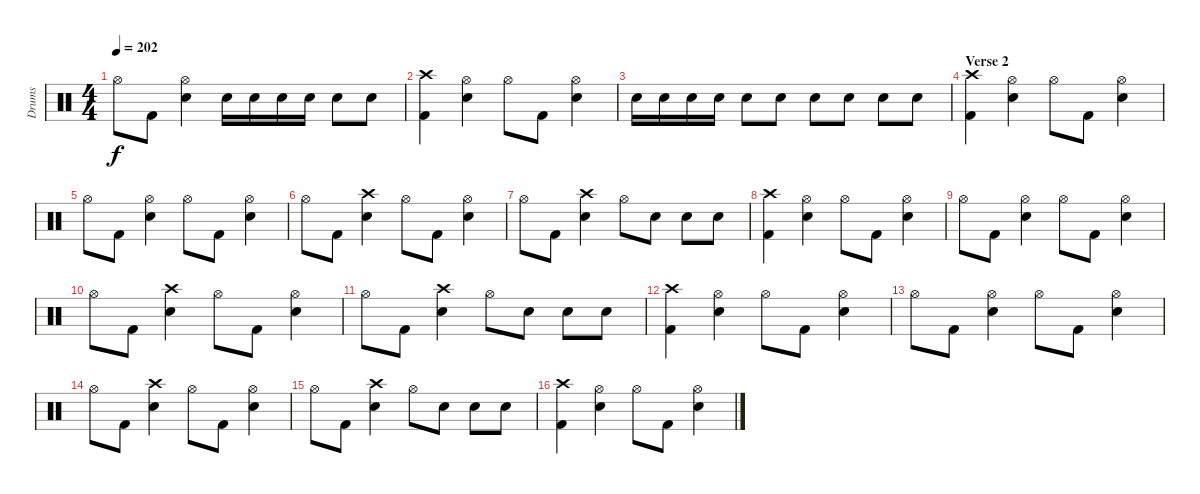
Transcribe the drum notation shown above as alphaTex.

\track ("Drums" "Drums") {instrument percussion}
\staff {score}
\articulation defaults
\ts (4 4)
\tempo 202
\clef neutral
\ks c "Hi-Hat (open)".8{dy f} "Kick (hit) 2".8
("Hi-Hat (open)" "Electric Snare (hit)").4 "Electric Snare (hit)".16 "Electric Snare (hit)".16 "Electric Snare (hit)".16 "Electric Snare (hit)".16 "Electric Snare (hit)".8 "Electric Snare (hit)".8 |
("Crash high (hit)" "Kick (hit) 2").4 ("Hi-Hat (open)" "Electric Snare (hit)").4 "Hi-Hat (open)".8 "Kick (hit) 2".8 ("Hi-Hat (open)" "Electric Snare (hit)").4 |
"Electric Snare (hit)".16 "Electric Snare (hit)".16 "Electric Snare (hit)".16 "Electric Snare (hit)".16 "Electric Snare (hit)".8 "Electric Snare (hit)".8 "Electric Snare (hit)".8 "Electric Snare (hit)".8 "Electric Snare (hit)".8 "Electric Snare (hit)".8 |
\section ("" "Verse 2")
("Crash high (hit)" "Kick (hit) 2").4 ("Hi-Hat (open)" "Electric Snare (hit)").4 "Hi-Hat (open)".8 "Kick (hit) 2".8 ("Hi-Hat (open)" "Electric Snare (hit)").4 |
"Hi-Hat (open)".8 "Kick (hit) 2".8 ("Hi-Hat (open)" "Electric Snare (hit)").4 "Hi-Hat (open)".8 "Kick (hit) 2".8 ("Hi-Hat (open)" "Electric Snare (hit)").4 |
"Hi-Hat (open)".8 "Kick (hit) 2".8 ("Crash high (hit)" "Electric Snare (hit)").4 "Hi-Hat (open)".8 "Kick (hit) 2".8 ("Hi-Hat (open)" "Electric Snare (hit)").4 |
"Hi-Hat (open)".8 "Kick (hit) 2".8 ("Crash high (hit)" "Electric Snare (hit)").4 "Hi-Hat (open)".8 "Electric Snare (hit)".8 "Electric Snare (hit)".8 "Electric Snare (hit)".8 |
("Crash high (hit)" "Kick (hit) 2").4 ("Hi-Hat (open)" "Electric Snare (hit)").4 "Hi-Hat (open)".8 "Kick (hit) 2".8 ("Hi-Hat (open)" "Electric Snare (hit)").4 |
"Hi-Hat (open)".8 "Kick (hit) 2".8 ("Hi-Hat (open)" "Electric Snare (hit)").4 "Hi-Hat (open)".8 "Kick (hit) 2".8 ("Hi-Hat (open)" "Electric Snare (hit)").4 |
"Hi-Hat (open)".8 "Kick (hit) 2".8 ("Crash high (hit)" "Electric Snare (hit)").4 "Hi-Hat (open)".8 "Kick (hit) 2".8 ("Hi-Hat (open)" "Electric Snare (hit)").4 |
"Hi-Hat (open)".8 "Kick (hit) 2".8 ("Crash high (hit)" "Electric Snare (hit)").4 "Hi-Hat (open)".8 "Electric Snare (hit)".8 "Electric Snare (hit)".8 "Electric Snare (hit)".8 |
("Crash high (hit)" "Kick (hit) 2").4 ("Hi-Hat (open)" "Electric Snare (hit)").4 "Hi-Hat (open)".8 "Kick (hit) 2".8 ("Hi-Hat (open)" "Electric Snare (hit)").4 |
"Hi-Hat (open)".8 "Kick (hit) 2".8 ("Hi-Hat (open)" "Electric Snare (hit)").4 "Hi-Hat (open)".8 "Kick (hit) 2".8 ("Hi-Hat (open)" "Electric Snare (hit)").4 |
"Hi-Hat (open)".8 "Kick (hit) 2".8 ("Crash high (hit)" "Electric Snare (hit)").4 "Hi-Hat (open)".8 "Kick (hit) 2".8 ("Hi-Hat (open)" "Electric Snare (hit)").4 |
"Hi-Hat (open)".8 "Kick (hit) 2".8 ("Crash high (hit)" "Electric Snare (hit)").4 "Hi-Hat (open)".8 "Electric Snare (hit)".8 "Electric Snare (hit)".8 "Electric Snare (hit)".8 |
("Crash high (hit)" "Kick (hit) 2").4 ("Hi-Hat (open)" "Electric Snare (hit)").4 "Hi-Hat (open)".8 "Kick (hit) 2".8 ("Hi-Hat (open)" "Electric Snare (hit)").4
